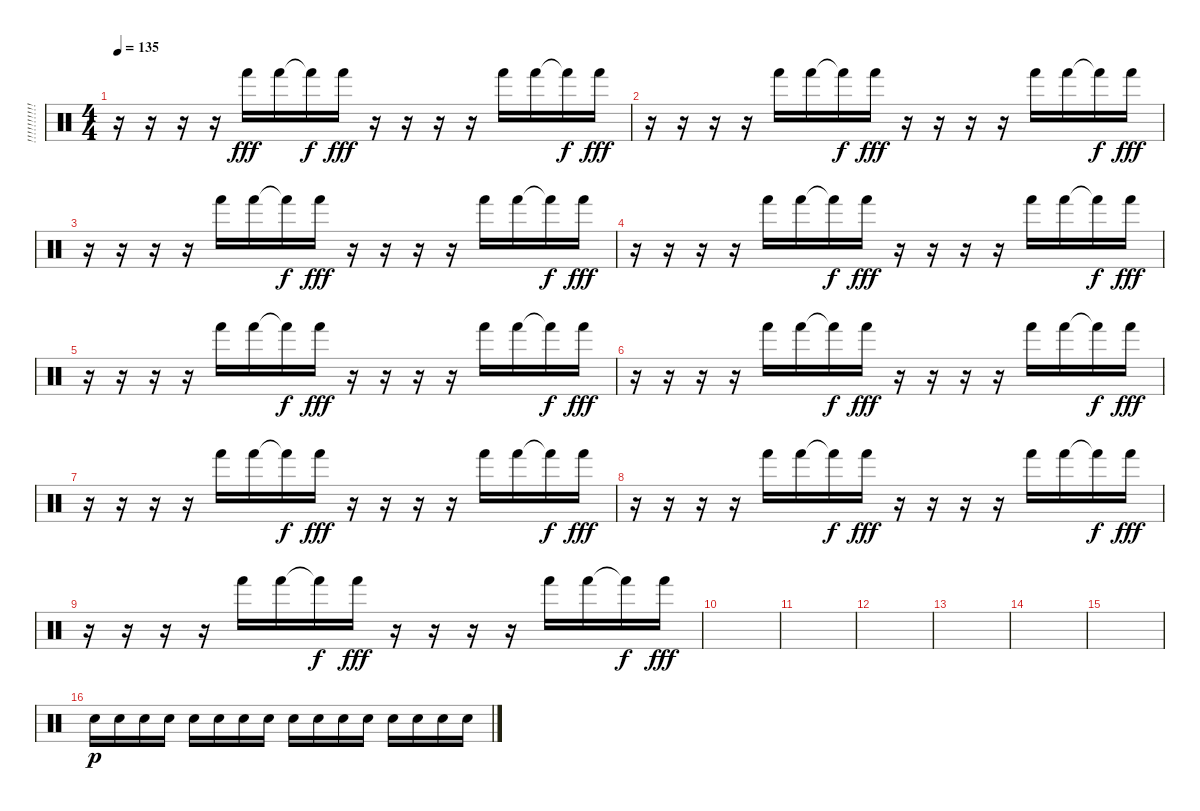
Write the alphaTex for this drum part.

\track ("!!!!!!!!!!!!!" "!!!!!!!!!!") {instrument percussion}
\staff {score}
\articulation defaults
\ts (4 4)
\tempo 135
\clef neutral
\ks c
r.16{dy fff} r.16 r.16 r.16 "Hand (hit)".16 "Hand (hit)".16 "Hand (hit)"{t}.16{dy f} "Hand (hit)".16{dy fff} r.16 r.16 r.16 r.16 "Hand (hit)".16 "Hand (hit)".16 "Hand (hit)"{t}.16{dy f} "Hand (hit)".16{dy fff} |
r.16 r.16 r.16 r.16 "Hand (hit)".16 "Hand (hit)".16 "Hand (hit)"{t}.16{dy f} "Hand (hit)".16{dy fff} r.16 r.16 r.16 r.16 "Hand (hit)".16 "Hand (hit)".16 "Hand (hit)"{t}.16{dy f} "Hand (hit)".16{dy fff} |
r.16 r.16 r.16 r.16 "Hand (hit)".16 "Hand (hit)".16 "Hand (hit)"{t}.16{dy f} "Hand (hit)".16{dy fff} r.16 r.16 r.16 r.16 "Hand (hit)".16 "Hand (hit)".16 "Hand (hit)"{t}.16{dy f} "Hand (hit)".16{dy fff} |
r.16 r.16 r.16 r.16 "Hand (hit)".16 "Hand (hit)".16 "Hand (hit)"{t}.16{dy f} "Hand (hit)".16{dy fff} r.16 r.16 r.16 r.16 "Hand (hit)".16 "Hand (hit)".16 "Hand (hit)"{t}.16{dy f} "Hand (hit)".16{dy fff} |
r.16 r.16 r.16 r.16 "Hand (hit)".16 "Hand (hit)".16 "Hand (hit)"{t}.16{dy f} "Hand (hit)".16{dy fff} r.16 r.16 r.16 r.16 "Hand (hit)".16 "Hand (hit)".16 "Hand (hit)"{t}.16{dy f} "Hand (hit)".16{dy fff} |
r.16 r.16 r.16 r.16 "Hand (hit)".16 "Hand (hit)".16 "Hand (hit)"{t}.16{dy f} "Hand (hit)".16{dy fff} r.16 r.16 r.16 r.16 "Hand (hit)".16 "Hand (hit)".16 "Hand (hit)"{t}.16{dy f} "Hand (hit)".16{dy fff} |
r.16 r.16 r.16 r.16 "Hand (hit)".16 "Hand (hit)".16 "Hand (hit)"{t}.16{dy f} "Hand (hit)".16{dy fff} r.16 r.16 r.16 r.16 "Hand (hit)".16 "Hand (hit)".16 "Hand (hit)"{t}.16{dy f} "Hand (hit)".16{dy fff} |
r.16 r.16 r.16 r.16 "Hand (hit)".16 "Hand (hit)".16 "Hand (hit)"{t}.16{dy f} "Hand (hit)".16{dy fff} r.16 r.16 r.16 r.16 "Hand (hit)".16 "Hand (hit)".16 "Hand (hit)"{t}.16{dy f} "Hand (hit)".16{dy fff} |
r.16 r.16 r.16 r.16 "Hand (hit)".16 "Hand (hit)".16 "Hand (hit)"{t}.16{dy f} "Hand (hit)".16{dy fff} r.16 r.16 r.16 r.16 "Hand (hit)".16 "Hand (hit)".16 "Hand (hit)"{t}.16{dy f} "Hand (hit)".16{dy fff} |
|
|
|
|
|
|
"Electric Snare (hit)".16{dy p} "Electric Snare (hit)".16 "Electric Snare (hit)".16 "Electric Snare (hit)".16 "Electric Snare (hit)".16 "Electric Snare (hit)".16 "Electric Snare (hit)".16 "Electric Snare (hit)".16 "Electric Snare (hit)".16 "Electric Snare (hit)".16 "Electric Snare (hit)".16 "Electric Snare (hit)".16 "Electric Snare (hit)".16 "Electric Snare (hit)".16 "Electric Snare (hit)".16 "Electric Snare (hit)".16
